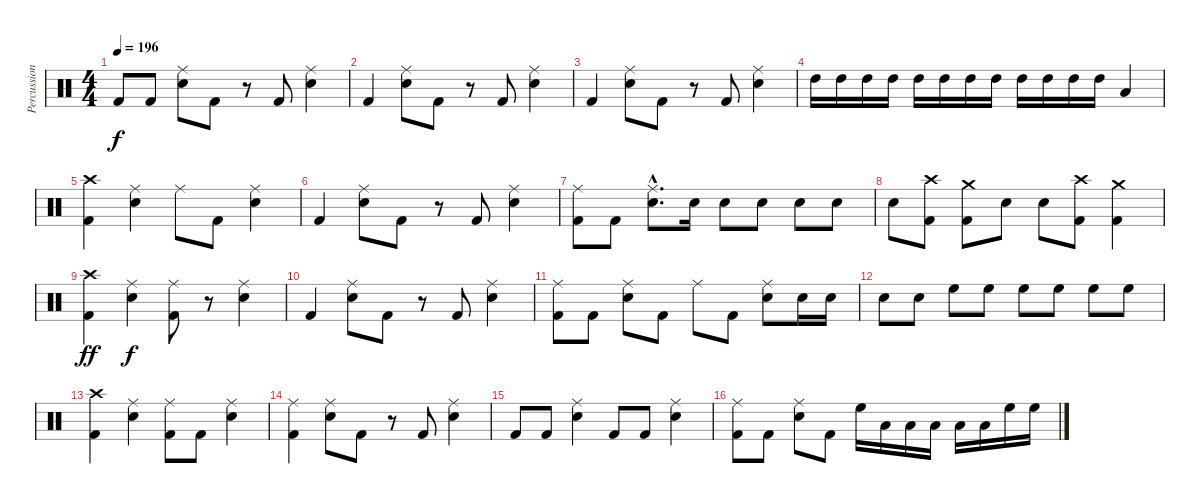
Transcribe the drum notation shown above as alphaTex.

\track ("Percussion" "Percussion") {instrument percussion}
\staff {score}
\articulation defaults
\ts (4 4)
\tempo 196
\clef neutral
\ks c "Kick (hit) 2".8{dy f} "Kick (hit) 2".8
("Ride (middle)" "Snare (hit) 2").8 "Kick (hit) 2".8 r.8 "Kick (hit) 2".8 ("Ride (middle)" "Snare (hit) 2").4 |
"Kick (hit) 2".4 ("Ride (middle)" "Snare (hit) 2").8 "Kick (hit) 2".8 r.8 "Kick (hit) 2".8 ("Ride (middle)" "Snare (hit) 2").4 |
"Kick (hit) 2".4 ("Ride (middle)" "Snare (hit) 2").8 "Kick (hit) 2".8 r.8 "Kick (hit) 2".8 ("Ride (middle)" "Snare (hit) 2").4 |
"High Tom (hit)".16 "High Tom (hit)".16 "High Tom (hit)".16 "High Tom (hit)".16 "High Tom (hit)".16 "High Tom (hit)".16 "High Tom (hit)".16 "High Tom (hit)".16 "High Tom (hit)".16 "High Tom (hit)".16 "High Tom (hit)".16 "High Tom (hit)".16 "Low Tom (hit)".4 |
("Crash high (hit)" "Kick (hit) 2").4 ("Ride (middle)" "Snare (hit) 2").4 "Ride (middle)".8 "Kick (hit) 2".8 ("Ride (middle)" "Snare (hit) 2").4 |
"Kick (hit) 2".4 ("Ride (middle)" "Snare (hit) 2").8 "Kick (hit) 2".8 r.8 "Kick (hit) 2".8 ("Ride (middle)" "Snare (hit) 2").4 |
("Ride (middle)" "Kick (hit) 2").8 "Kick (hit) 2".8 ("Ride (middle)"{hac} "Snare (hit) 2"{hac}).8{d} "Snare (hit) 2".16 "Snare (hit) 2".8 "Snare (hit) 2".8 "Snare (hit) 2".8 "Snare (hit) 2".8 |
"Snare (hit) 2".8 ("Crash high (hit)" "Kick (hit) 2").8 ("Crash medium (hit)" "Kick (hit) 2").8 "Snare (hit) 2".8 "Snare (hit) 2".8 ("Crash high (hit)" "Kick (hit) 2").8 ("Crash medium (hit)" "Kick (hit) 2").4 |
("Crash high (hit)" "Kick (hit) 2").4{dy ff} ("Ride (middle)" "Snare (hit) 2").4{dy f} ("Ride (middle)" "Kick (hit) 2").8 r.8 ("Ride (middle)" "Snare (hit) 2").4 |
"Kick (hit) 2".4 ("Ride (middle)" "Snare (hit) 2").8 "Kick (hit) 2".8 r.8 "Kick (hit) 2".8 ("Ride (middle)" "Snare (hit) 2").4 |
("Ride (middle)" "Kick (hit) 2").8 "Kick (hit) 2".8 ("Ride (middle)" "Snare (hit) 2").8 "Kick (hit) 2".8 "Ride (middle)".8 "Kick (hit) 2".8 ("Ride (middle)" "Snare (hit) 2").8 "Snare (hit) 2".16 "Snare (hit) 2".16 |
"Snare (hit) 2".8 "Snare (hit) 2".8 "High Floor Tom (hit)".8 "High Floor Tom (hit)".8 "High Floor Tom (hit)".8 "High Floor Tom (hit)".8 "High Floor Tom (hit)".8 "High Floor Tom (hit)".8 |
("Crash high (hit)" "Kick (hit) 2").4 ("Ride (middle)" "Snare (hit) 2").4 ("Ride (middle)" "Kick (hit) 2").8 "Kick (hit) 2".8 ("Ride (middle)" "Snare (hit) 2").4 |
("Ride (middle)" "Kick (hit) 2").4 ("Ride (middle)" "Snare (hit) 2").8 "Kick (hit) 2".8 r.8 "Kick (hit) 2".8 ("Ride (middle)" "Snare (hit) 2").4 |
"Kick (hit) 2".8 "Kick (hit) 2".8 ("Ride (middle)" "Snare (hit) 2").4 "Kick (hit) 2".8 "Kick (hit) 2".8 ("Ride (middle)" "Snare (hit) 2").4 |
("Ride (middle)" "Kick (hit) 2").8 "Kick (hit) 2".8 ("Ride (middle)" "Snare (hit) 2").8 "Kick (hit) 2".8 "High Floor Tom (hit)".16 "Low Tom (hit)".16 "Low Tom (hit)".16 "Low Tom (hit)".16 "Low Tom (hit)".16 "Low Tom (hit)".16 "High Floor Tom (hit)".16 "High Floor Tom (hit)".16
